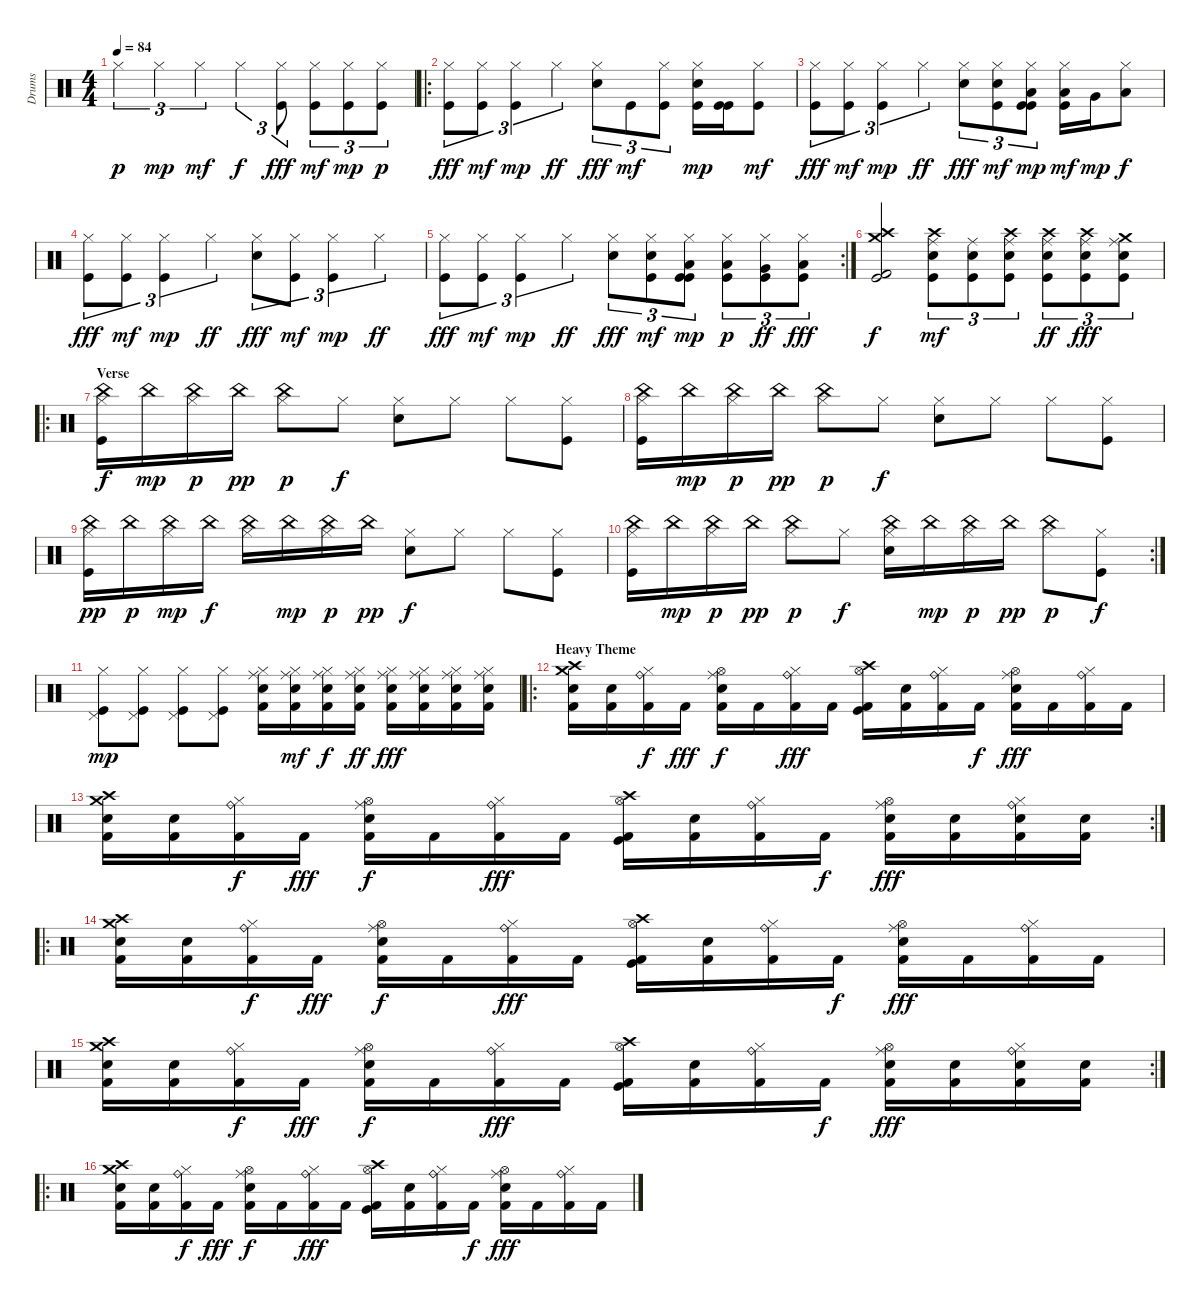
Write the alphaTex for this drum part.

\track ("Drums" "Drums") {instrument percussion}
\staff {score}
\articulation defaults
\ts (4 4)
\tempo 84
\clef neutral
\ks c "Hi-Hat (closed)".4{tu (3 2) dy p} "Hi-Hat (closed)".4{tu (3 2) dy mp} "Hi-Hat (closed)".4{tu (3 2) dy mf} "Hi-Hat (closed)".4{tu (3 2) dy f}
("Hi-Hat (closed)" "Kick (hit)").8{tu (3 2) dy fff} ("Hi-Hat (closed)" "Kick (hit)").8{tu (3 2) dy mf} ("Hi-Hat (closed)" "Kick (hit)").8{tu (3 2) dy mp} ("Hi-Hat (closed)" "Kick (hit)").8{tu (3 2) dy p} |
\ro
("Hi-Hat (closed)" "Kick (hit)").8{tu (3 2) dy fff} ("Hi-Hat (closed)" "Kick (hit)").8{tu (3 2) dy mf} ("Hi-Hat (closed)" "Kick (hit)").4{tu (3 2) dy mp} "Hi-Hat (closed)".4{tu (3 2) dy ff} ("Hi-Hat (closed)" "Snare (hit) 2").8{tu (3 2) dy fff} "Kick (hit)".8{tu (3 2) dy mf} ("Hi-Hat (closed)" "Kick (hit)").8{tu (3 2)} ("Hi-Hat (closed)" "Kick (hit)" "Electric Snare (hit)").16{dy mp} ("Kick (hit)" "Kick (hit)").16 ("Hi-Hat (closed)" "Kick (hit)").8{dy mf} |
("Hi-Hat (closed)" "Kick (hit)").8{tu (3 2) dy fff} ("Hi-Hat (closed)" "Kick (hit)").8{tu (3 2) dy mf} ("Hi-Hat (closed)" "Kick (hit)").4{tu (3 2) dy mp} "Hi-Hat (closed)".4{tu (3 2) dy ff} ("Hi-Hat (closed)" "Snare (hit) 2").8{tu (3 2) dy fff} ("Hi-Hat (closed)" "Kick (hit)" "Snare (hit) 2").8{tu (3 2) dy mf} ("Hi-Hat (closed)" "Kick (hit)" "Kick (hit)" "Low Tom (hit)").8{tu (3 2) dy mp} ("Hi-Hat (closed)" "Kick (hit)" "Low Tom (hit)").16{dy mf} "Very Low Tom (hit)".16{dy mp} ("Hi-Hat (closed)" "Low Floor Tom (hit)").8{dy f} |
("Hi-Hat (closed)" "Kick (hit)").8{tu (3 2) dy fff} ("Hi-Hat (closed)" "Kick (hit)").8{tu (3 2) dy mf} ("Hi-Hat (closed)" "Kick (hit)").4{tu (3 2) dy mp} "Hi-Hat (closed)".4{tu (3 2) dy ff} ("Hi-Hat (closed)" "Snare (hit) 2").8{tu (3 2) dy fff} ("Hi-Hat (closed)" "Kick (hit)").8{tu (3 2) dy mf} ("Hi-Hat (closed)" "Kick (hit)").4{tu (3 2) dy mp} "Hi-Hat (closed)".4{tu (3 2) dy ff} |
\rc 2
("Hi-Hat (closed)" "Kick (hit)").8{tu (3 2) dy fff} ("Hi-Hat (closed)" "Kick (hit)").8{tu (3 2) dy mf} ("Hi-Hat (closed)" "Kick (hit)").4{tu (3 2) dy mp} "Hi-Hat (closed)".4{tu (3 2) dy ff} ("Hi-Hat (closed)" "Snare (hit) 2").8{tu (3 2) dy fff} ("Hi-Hat (closed)" "Kick (hit)" "Snare (hit) 2").8{tu (3 2) dy mf} ("Hi-Hat (closed)" "Kick (hit)" "Kick (hit)" "Low Tom (hit)").8{tu (3 2) dy mp} ("Hi-Hat (closed)" "Kick (hit)" "Low Tom (hit)").8{tu (3 2) dy p} ("Hi-Hat (closed)" "Kick (hit)" "Very Low Tom (hit)").8{tu (3 2) dy ff} ("Hi-Hat (closed)" "Kick (hit)" "Low Floor Tom (hit)").8{tu (3 2) dy fff} |
("Crash medium (hit)" "Crash high (hit)" "Kick (hit) 2" "Kick (hit)").2{dy f} ("Ride (middle)" "Crash high (hit)" "Kick (hit)" "Snare (hit) 2").8{tu (3 2) dy mf} ("Ride (middle)" "Kick (hit)" "Snare (hit) 2").8{tu (3 2)} ("Ride (middle)" "Crash high (hit)" "Kick (hit)" "Snare (hit) 2").8{tu (3 2)} ("Ride (middle)" "Crash high (hit)" "Kick (hit)" "Snare (hit) 2").8{tu (3 2) dy ff} ("Ride (middle)" "Crash high (hit)" "Kick (hit)" "Snare (hit) 2").8{tu (3 2) dy fff} ("Ride (middle)" "Crash medium (hit)" "Kick (hit)" "Snare (hit) 2").8{tu (3 2)} |
\ro
\section ("" "Verse")
("Hi-Hat (closed)" "Kick (hit)" "China (hit)").16{dy f} "China (hit)".16{dy mp} ("Hi-Hat (closed)" "China (hit)").16{dy p} "China (hit)".16{dy pp} ("Hi-Hat (closed)" "China (hit)").8{dy p} "Hi-Hat (closed)".8{dy f} ("Hi-Hat (closed)" "Snare (hit) 2").8 "Hi-Hat (closed)".8 "Hi-Hat (closed)".8 ("Hi-Hat (closed)" "Kick (hit)").8 |
("Hi-Hat (closed)" "Kick (hit)" "China (hit)").16 "China (hit)".16{dy mp} ("Hi-Hat (closed)" "China (hit)").16{dy p} "China (hit)".16{dy pp} ("Hi-Hat (closed)" "China (hit)").8{dy p} "Hi-Hat (closed)".8{dy f} ("Hi-Hat (closed)" "Snare (hit) 2").8 "Hi-Hat (closed)".8 "Hi-Hat (closed)".8 ("Hi-Hat (closed)" "Kick (hit)").8 |
("Hi-Hat (closed)" "Kick (hit)" "China (hit)").16{dy pp} "China (hit)".16{dy p} ("Hi-Hat (closed)" "China (hit)").16{dy mp} "China (hit)".16{dy f} ("Hi-Hat (closed)" "China (hit)").16 "China (hit)".16{dy mp} ("Hi-Hat (closed)" "China (hit)").16{dy p} "China (hit)".16{dy pp} ("Hi-Hat (closed)" "Snare (hit) 2").8{dy f} "Hi-Hat (closed)".8 "Hi-Hat (closed)".8 ("Hi-Hat (closed)" "Kick (hit)").8 |
\rc 2
("Hi-Hat (closed)" "Kick (hit)" "China (hit)").16 "China (hit)".16{dy mp} ("Hi-Hat (closed)" "China (hit)").16{dy p} "China (hit)".16{dy pp} ("Hi-Hat (closed)" "China (hit)").8{dy p} "Hi-Hat (closed)".8{dy f} ("Hi-Hat (closed)" "Snare (hit) 2" "China (hit)").16 "China (hit)".16{dy mp} ("Hi-Hat (closed)" "China (hit)").16{dy p} "China (hit)".16{dy pp} ("Hi-Hat (closed)" "China (hit)").8{dy p} ("Hi-Hat (closed)" "Kick (hit)").8{dy f} |
("Hi-Hat (closed)" "Pedal Hi-Hat (hit)" "Kick (hit)").8{dy mp} ("Hi-Hat (closed)" "Pedal Hi-Hat (hit)" "Kick (hit)").8 ("Hi-Hat (closed)" "Pedal Hi-Hat (hit)" "Kick (hit)").8 ("Hi-Hat (closed)" "Pedal Hi-Hat (hit)" "Kick (hit)").8 ("Ride (middle)" "Hi-Hat (closed)" "Kick (hit) 2" "Snare (hit) 2").16 ("Ride (middle)" "Hi-Hat (closed)" "Kick (hit) 2" "Snare (hit) 2").16{dy mf} ("Ride (middle)" "Hi-Hat (closed)" "Kick (hit) 2" "Snare (hit) 2").16{dy f} ("Ride (middle)" "Hi-Hat (closed)" "Kick (hit) 2" "Snare (hit) 2").16{dy ff} ("Ride (middle)" "Hi-Hat (closed)" "Kick (hit) 2" "Snare (hit) 2").16{dy fff} ("Ride (middle)" "Hi-Hat (closed)" "Kick (hit) 2" "Snare (hit) 2").16 ("Ride (middle)" "Hi-Hat (closed)" "Kick (hit) 2" "Snare (hit) 2").16 ("Ride (middle)" "Hi-Hat (closed)" "Kick (hit) 2" "Snare (hit) 2").16 |
\ro
\section ("" "Heavy Theme")
("Crash high (hit)" "Crash medium (hit)" "Kick (hit) 2" "Snare (hit) 2").16 ("Metronome (bell)" "Kick (hit) 2").16 ("Hi-Hat (closed)" "Ride (bell)" "Kick (hit) 2").16{dy f} "Kick (hit) 2".16{dy fff} ("Hi-Hat (open)" "Ride (middle)" "Kick (hit) 2" "Snare (hit) 2").16{dy f} "Kick (hit) 2".16 ("Hi-Hat (closed)" "Ride (bell)" "Kick (hit) 2").16{dy fff} "Kick (hit) 2".16 ("Crash high (hit)" "Hi-Hat (open)" "Kick (hit) 2" "Kick (hit)").16 ("Metronome (bell)" "Kick (hit) 2").16 ("Hi-Hat (closed)" "Ride (bell)" "Kick (hit) 2").16 "Kick (hit) 2".16{dy f} ("Hi-Hat (open)" "Ride (middle)" "Kick (hit) 2" "Snare (hit) 2").16{dy fff} "Kick (hit) 2".16 ("Hi-Hat (closed)" "Ride (bell)" "Kick (hit) 2").16 "Kick (hit) 2".16 |
\rc 2
("Crash high (hit)" "Crash medium (hit)" "Kick (hit) 2" "Snare (hit) 2").16 ("Metronome (bell)" "Kick (hit) 2").16 ("Hi-Hat (closed)" "Ride (bell)" "Kick (hit) 2").16{dy f} "Kick (hit) 2".16{dy fff} ("Hi-Hat (open)" "Ride (middle)" "Kick (hit) 2" "Snare (hit) 2").16{dy f} "Kick (hit) 2".16 ("Hi-Hat (closed)" "Ride (bell)" "Kick (hit) 2").16{dy fff} "Kick (hit) 2".16 ("Crash high (hit)" "Hi-Hat (open)" "Kick (hit) 2" "Kick (hit)").16 ("Metronome (bell)" "Kick (hit) 2").16 ("Hi-Hat (closed)" "Ride (bell)" "Kick (hit) 2").16 "Kick (hit) 2".16{dy f} ("Hi-Hat (open)" "Ride (middle)" "Kick (hit) 2" "Snare (hit) 2").16{dy fff} ("Electric Snare (hit)" "Kick (hit) 2").16 ("Hi-Hat (closed)" "Ride (bell)" "Electric Snare (hit)" "Kick (hit) 2").16 ("Electric Snare (hit)" "Kick (hit) 2").16 |
\ro
("Crash high (hit)" "Crash medium (hit)" "Kick (hit) 2" "Snare (hit) 2").16 ("Metronome (bell)" "Kick (hit) 2").16 ("Hi-Hat (closed)" "Ride (bell)" "Kick (hit) 2").16{dy f} "Kick (hit) 2".16{dy fff} ("Hi-Hat (open)" "Ride (middle)" "Kick (hit) 2" "Snare (hit) 2").16{dy f} "Kick (hit) 2".16 ("Hi-Hat (closed)" "Ride (bell)" "Kick (hit) 2").16{dy fff} "Kick (hit) 2".16 ("Crash high (hit)" "Hi-Hat (open)" "Kick (hit) 2" "Kick (hit)").16 ("Metronome (bell)" "Kick (hit) 2").16 ("Hi-Hat (closed)" "Ride (bell)" "Kick (hit) 2").16 "Kick (hit) 2".16{dy f} ("Hi-Hat (open)" "Ride (middle)" "Kick (hit) 2" "Snare (hit) 2").16{dy fff} "Kick (hit) 2".16 ("Hi-Hat (closed)" "Ride (bell)" "Kick (hit) 2").16 "Kick (hit) 2".16 |
\rc 2
("Crash high (hit)" "Crash medium (hit)" "Kick (hit) 2" "Snare (hit) 2").16 ("Metronome (bell)" "Kick (hit) 2").16 ("Hi-Hat (closed)" "Ride (bell)" "Kick (hit) 2").16{dy f} "Kick (hit) 2".16{dy fff} ("Hi-Hat (open)" "Ride (middle)" "Kick (hit) 2" "Snare (hit) 2").16{dy f} "Kick (hit) 2".16 ("Hi-Hat (closed)" "Ride (bell)" "Kick (hit) 2").16{dy fff} "Kick (hit) 2".16 ("Crash high (hit)" "Hi-Hat (open)" "Kick (hit) 2" "Kick (hit)").16 ("Metronome (bell)" "Kick (hit) 2").16 ("Hi-Hat (closed)" "Ride (bell)" "Kick (hit) 2").16 "Kick (hit) 2".16{dy f} ("Hi-Hat (open)" "Ride (middle)" "Kick (hit) 2" "Snare (hit) 2").16{dy fff} ("Electric Snare (hit)" "Kick (hit) 2").16 ("Hi-Hat (closed)" "Ride (bell)" "Electric Snare (hit)" "Kick (hit) 2").16 ("Electric Snare (hit)" "Kick (hit) 2").16 |
\ro
("Crash high (hit)" "Crash medium (hit)" "Kick (hit) 2" "Snare (hit) 2").16 ("Metronome (bell)" "Kick (hit) 2").16 ("Hi-Hat (closed)" "Ride (bell)" "Kick (hit) 2").16{dy f} "Kick (hit) 2".16{dy fff} ("Hi-Hat (open)" "Ride (middle)" "Kick (hit) 2" "Snare (hit) 2").16{dy f} "Kick (hit) 2".16 ("Hi-Hat (closed)" "Ride (bell)" "Kick (hit) 2").16{dy fff} "Kick (hit) 2".16 ("Crash high (hit)" "Hi-Hat (open)" "Kick (hit) 2" "Kick (hit)").16 ("Metronome (bell)" "Kick (hit) 2").16 ("Hi-Hat (closed)" "Ride (bell)" "Kick (hit) 2").16 "Kick (hit) 2".16{dy f} ("Hi-Hat (open)" "Ride (middle)" "Kick (hit) 2" "Snare (hit) 2").16{dy fff} "Kick (hit) 2".16 ("Hi-Hat (closed)" "Ride (bell)" "Kick (hit) 2").16 "Kick (hit) 2".16
